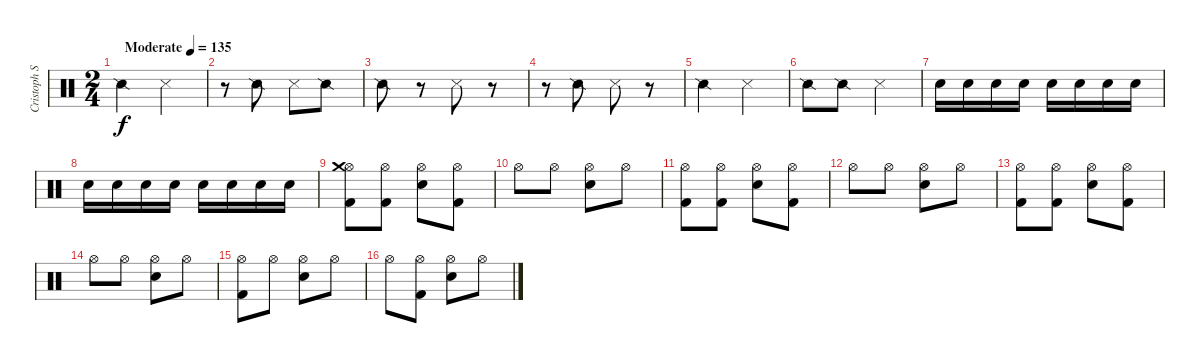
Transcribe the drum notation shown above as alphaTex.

\track ("Cristoph Schneider / Drums" "Cristoph S") {instrument percussion}
\staff {score}
\articulation defaults
\ts (2 4)
\tempo (135 "Moderate")
\clef neutral
\ks c "Snare (side stick) 2".4{dy f} "Metronome (hit)".4
|
r.8 "Snare (side stick) 2".8 "Metronome (hit)".8 "Snare (side stick) 2".8 |
"Snare (side stick) 2".8 r.8 "Metronome (hit)".8 r.8 |
r.8 "Snare (side stick) 2".8 "Metronome (hit)".8 r.8 |
"Snare (side stick) 2".4 "Metronome (hit)".4 |
"Snare (side stick) 2".8 "Snare (side stick) 2".8 "Metronome (hit)".4 |
"Electric Snare (hit)".16 "Electric Snare (hit)".16 "Electric Snare (hit)".16 "Electric Snare (hit)".16 "Electric Snare (hit)".16 "Electric Snare (hit)".16 "Electric Snare (hit)".16 "Electric Snare (hit)".16 |
"Electric Snare (hit)".16 "Electric Snare (hit)".16 "Electric Snare (hit)".16 "Electric Snare (hit)".16 "Electric Snare (hit)".16 "Electric Snare (hit)".16 "Electric Snare (hit)".16 "Electric Snare (hit)".16 |
("Hi-Hat (open)" "Kick (hit) 2" "Crash medium (hit)").8 ("Hi-Hat (open)" "Kick (hit) 2").8 ("Hi-Hat (open)" "Electric Snare (hit)").8 ("Kick (hit) 2" "Hi-Hat (open)").8 |
"Hi-Hat (open)".8 "Hi-Hat (open)".8 ("Electric Snare (hit)" "Hi-Hat (open)").8 "Hi-Hat (open)".8 |
("Hi-Hat (open)" "Kick (hit) 2").8 ("Hi-Hat (open)" "Kick (hit) 2").8 ("Hi-Hat (open)" "Electric Snare (hit)").8 ("Hi-Hat (open)" "Kick (hit) 2").8 |
"Hi-Hat (open)".8 "Hi-Hat (open)".8 ("Electric Snare (hit)" "Hi-Hat (open)").8 "Hi-Hat (open)".8 |
("Hi-Hat (open)" "Kick (hit) 2").8 ("Hi-Hat (open)" "Kick (hit) 2").8 ("Hi-Hat (open)" "Electric Snare (hit)").8 ("Hi-Hat (open)" "Kick (hit) 2").8 |
"Hi-Hat (open)".8 "Hi-Hat (open)".8 ("Hi-Hat (open)" "Electric Snare (hit)").8 "Hi-Hat (open)".8 |
("Kick (hit) 2" "Hi-Hat (open)").8 "Hi-Hat (open)".8 ("Hi-Hat (open)" "Electric Snare (hit)").8 "Hi-Hat (open)".8 |
"Hi-Hat (open)".8 ("Hi-Hat (open)" "Kick (hit) 2").8 ("Hi-Hat (open)" "Electric Snare (hit)").8 "Hi-Hat (open)".8
